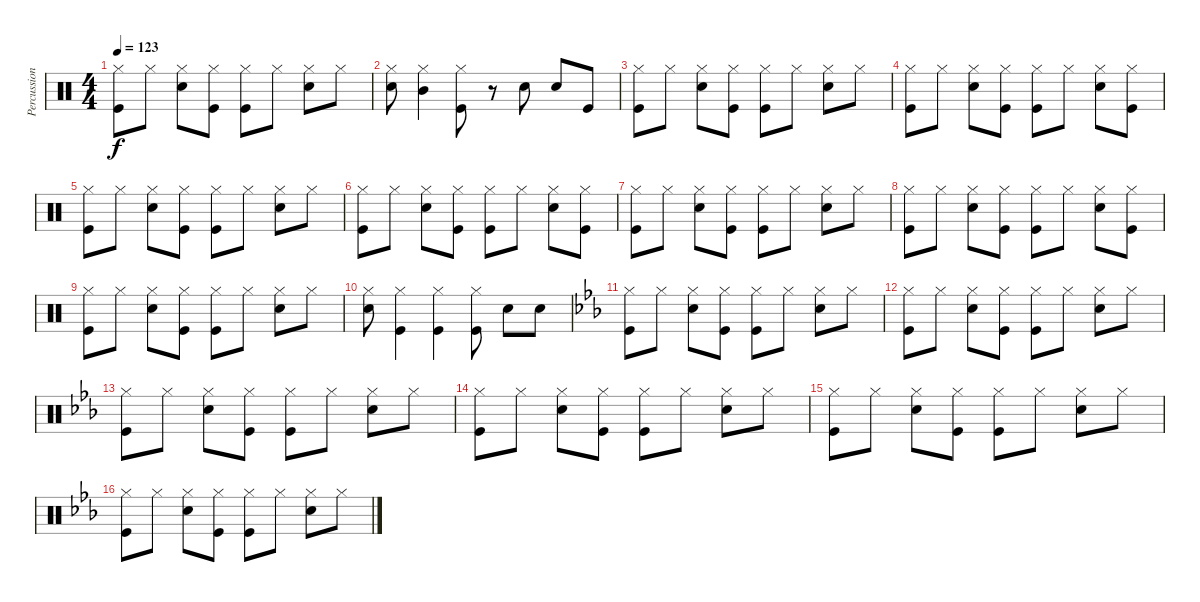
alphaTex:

\track ("Percussion" "Percussion") {instrument percussion}
\staff {score}
\articulation defaults
\ts (4 4)
\tempo 123
\clef neutral
\ks c
("Hi-Hat (closed)" "Kick (hit)").8{dy f} "Hi-Hat (closed)".8 ("Hi-Hat (closed)" "Snare (hit) 2").8 ("Hi-Hat (closed)" "Kick (hit)").8 ("Hi-Hat (closed)" "Kick (hit)").8 "Hi-Hat (closed)".8 ("Hi-Hat (closed)" "Snare (hit) 2").8 "Hi-Hat (closed)".8 |
("Hi-Hat (closed)" "Snare (hit) 2").8 ("Hi-Hat (closed)" "Mid Tom (hit)").4 ("Hi-Hat (closed)" "Kick (hit)").8 r.8 "Snare (hit) 2".8 "Snare (hit) 2".8 "Kick (hit)".8 |
("Hi-Hat (closed)" "Kick (hit)").8 "Hi-Hat (closed)".8 ("Hi-Hat (closed)" "Snare (hit) 2").8 ("Hi-Hat (closed)" "Kick (hit)").8 ("Hi-Hat (closed)" "Kick (hit)").8 "Hi-Hat (closed)".8 ("Hi-Hat (closed)" "Snare (hit) 2").8 "Hi-Hat (closed)".8 |
("Hi-Hat (closed)" "Kick (hit)").8 "Hi-Hat (closed)".8 ("Hi-Hat (closed)" "Snare (hit) 2").8 ("Hi-Hat (closed)" "Kick (hit)").8 ("Hi-Hat (closed)" "Kick (hit)").8 "Hi-Hat (closed)".8 ("Hi-Hat (closed)" "Snare (hit) 2").8 ("Hi-Hat (closed)" "Kick (hit)").8 |
("Hi-Hat (closed)" "Kick (hit)").8 "Hi-Hat (closed)".8 ("Hi-Hat (closed)" "Snare (hit) 2").8 ("Hi-Hat (closed)" "Kick (hit)").8 ("Hi-Hat (closed)" "Kick (hit)").8 "Hi-Hat (closed)".8 ("Hi-Hat (closed)" "Snare (hit) 2").8 "Hi-Hat (closed)".8 |
("Hi-Hat (closed)" "Kick (hit)").8 "Hi-Hat (closed)".8 ("Hi-Hat (closed)" "Snare (hit) 2").8 ("Hi-Hat (closed)" "Kick (hit)").8 ("Hi-Hat (closed)" "Kick (hit)").8 "Hi-Hat (closed)".8 ("Hi-Hat (closed)" "Snare (hit) 2").8 ("Hi-Hat (closed)" "Kick (hit)").8 |
("Hi-Hat (closed)" "Kick (hit)").8 "Hi-Hat (closed)".8 ("Hi-Hat (closed)" "Snare (hit) 2").8 ("Hi-Hat (closed)" "Kick (hit)").8 ("Hi-Hat (closed)" "Kick (hit)").8 "Hi-Hat (closed)".8 ("Hi-Hat (closed)" "Snare (hit) 2").8 "Hi-Hat (closed)".8 |
("Hi-Hat (closed)" "Kick (hit)").8 "Hi-Hat (closed)".8 ("Hi-Hat (closed)" "Snare (hit) 2").8 ("Hi-Hat (closed)" "Kick (hit)").8 ("Hi-Hat (closed)" "Kick (hit)").8 "Hi-Hat (closed)".8 ("Hi-Hat (closed)" "Snare (hit) 2").8 ("Hi-Hat (closed)" "Kick (hit)").8 |
("Hi-Hat (closed)" "Kick (hit)").8 "Hi-Hat (closed)".8 ("Hi-Hat (closed)" "Snare (hit) 2").8 ("Hi-Hat (closed)" "Kick (hit)").8 ("Hi-Hat (closed)" "Kick (hit)").8 "Hi-Hat (closed)".8 ("Hi-Hat (closed)" "Snare (hit) 2").8 "Hi-Hat (closed)".8 |
("Hi-Hat (closed)" "Snare (hit) 2").8 ("Hi-Hat (closed)" "Kick (hit)").4 ("Hi-Hat (closed)" "Kick (hit)").4 ("Hi-Hat (closed)" "Kick (hit)").8 "Snare (hit) 2".8 "Snare (hit) 2".8 |
\ks eb
("Hi-Hat (closed)" "Kick (hit)").8 "Hi-Hat (closed)".8 ("Hi-Hat (closed)" "Snare (hit) 2").8 ("Hi-Hat (closed)" "Kick (hit)").8 ("Hi-Hat (closed)" "Kick (hit)").8 "Hi-Hat (closed)".8 ("Hi-Hat (closed)" "Snare (hit) 2").8 "Hi-Hat (closed)".8 |
("Hi-Hat (closed)" "Kick (hit)").8 "Hi-Hat (closed)".8 ("Hi-Hat (closed)" "Snare (hit) 2").8 ("Hi-Hat (closed)" "Kick (hit)").8 ("Hi-Hat (closed)" "Kick (hit)").8 "Hi-Hat (closed)".8 ("Hi-Hat (closed)" "Snare (hit) 2").8 "Hi-Hat (closed)".8 |
("Hi-Hat (closed)" "Kick (hit)").8 "Hi-Hat (closed)".8 ("Hi-Hat (closed)" "Snare (hit) 2").8 ("Hi-Hat (closed)" "Kick (hit)").8 ("Hi-Hat (closed)" "Kick (hit)").8 "Hi-Hat (closed)".8 ("Hi-Hat (closed)" "Snare (hit) 2").8 "Hi-Hat (closed)".8 |
("Hi-Hat (closed)" "Kick (hit)").8 "Hi-Hat (closed)".8 ("Hi-Hat (closed)" "Snare (hit) 2").8 ("Hi-Hat (closed)" "Kick (hit)").8 ("Hi-Hat (closed)" "Kick (hit)").8 "Hi-Hat (closed)".8 ("Hi-Hat (closed)" "Snare (hit) 2").8 "Hi-Hat (closed)".8 |
("Hi-Hat (closed)" "Kick (hit)").8 "Hi-Hat (closed)".8 ("Hi-Hat (closed)" "Snare (hit) 2").8 ("Hi-Hat (closed)" "Kick (hit)").8 ("Hi-Hat (closed)" "Kick (hit)").8 "Hi-Hat (closed)".8 ("Hi-Hat (closed)" "Snare (hit) 2").8 "Hi-Hat (closed)".8 |
("Hi-Hat (closed)" "Kick (hit)").8 "Hi-Hat (closed)".8 ("Hi-Hat (closed)" "Snare (hit) 2").8 ("Hi-Hat (closed)" "Kick (hit)").8 ("Hi-Hat (closed)" "Kick (hit)").8 "Hi-Hat (closed)".8 ("Hi-Hat (closed)" "Snare (hit) 2").8 "Hi-Hat (closed)".8
